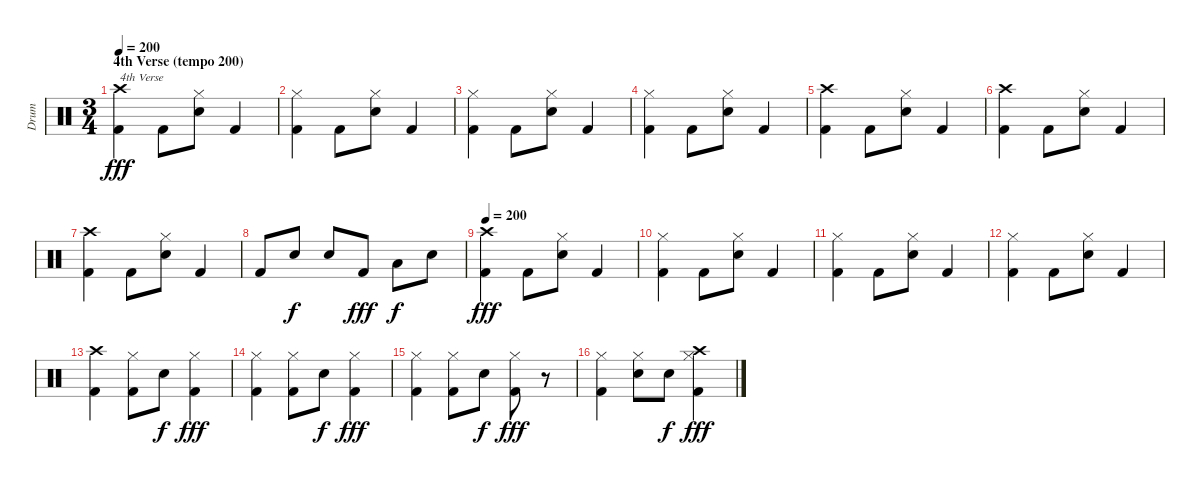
\track ("Drum" "Drum") {instrument percussion}
\staff {score}
\articulation defaults
\ts (3 4)
\section ("" "4th Verse (tempo 200)")
\tempo 200
\clef neutral
\ks c
("Crash high (hit)" "Kick (hit) 2").4{txt "4th Verse" dy fff} "Kick (hit) 2".8 ("Hi-Hat (closed)" "Snare (hit) 2").8 "Kick (hit) 2".4 |
("Hi-Hat (closed)" "Kick (hit) 2").4 "Kick (hit) 2".8 ("Hi-Hat (closed)" "Snare (hit) 2").8 "Kick (hit) 2".4 |
("Hi-Hat (closed)" "Kick (hit) 2").4 "Kick (hit) 2".8 ("Hi-Hat (closed)" "Snare (hit) 2").8 "Kick (hit) 2".4 |
("Hi-Hat (closed)" "Kick (hit) 2").4 "Kick (hit) 2".8 ("Hi-Hat (closed)" "Snare (hit) 2").8 "Kick (hit) 2".4 |
("Crash high (hit)" "Kick (hit) 2").4 "Kick (hit) 2".8 ("Hi-Hat (closed)" "Snare (hit) 2").8 "Kick (hit) 2".4 |
("Crash high (hit)" "Kick (hit) 2").4 "Kick (hit) 2".8 ("Hi-Hat (closed)" "Snare (hit) 2").8 "Kick (hit) 2".4 |
("Crash high (hit)" "Kick (hit) 2").4 "Kick (hit) 2".8 ("Hi-Hat (closed)" "Snare (hit) 2").8 "Kick (hit) 2".4 |
"Kick (hit) 2".8 "Snare (hit) 2".8{dy f} "Snare (hit) 2".8 "Kick (hit) 2".8{dy fff} "Low Tom (hit)".8{dy f} "Snare (hit) 2".8 |
\tempo 200
("Crash high (hit)" "Kick (hit) 2").4{dy fff} "Kick (hit) 2".8 ("Hi-Hat (closed)" "Snare (hit) 2").8 "Kick (hit) 2".4 |
("Hi-Hat (closed)" "Kick (hit) 2").4 "Kick (hit) 2".8 ("Hi-Hat (closed)" "Snare (hit) 2").8 "Kick (hit) 2".4 |
("Hi-Hat (closed)" "Kick (hit) 2").4 "Kick (hit) 2".8 ("Hi-Hat (closed)" "Snare (hit) 2").8 "Kick (hit) 2".4 |
("Hi-Hat (closed)" "Kick (hit) 2").4 "Kick (hit) 2".8 ("Hi-Hat (closed)" "Snare (hit) 2").8 "Kick (hit) 2".4 |
("Crash high (hit)" "Kick (hit) 2").4 ("Hi-Hat (closed)" "Kick (hit) 2").8 "Snare (hit) 2".8{dy f} ("Hi-Hat (closed)" "Kick (hit) 2").4{dy fff} |
("Hi-Hat (closed)" "Kick (hit) 2").4 ("Hi-Hat (closed)" "Kick (hit) 2").8 "Snare (hit) 2".8{dy f} ("Hi-Hat (closed)" "Kick (hit) 2").4{dy fff} |
("Hi-Hat (closed)" "Kick (hit) 2").4 ("Hi-Hat (closed)" "Kick (hit) 2").8 "Snare (hit) 2".8{dy f} ("Hi-Hat (closed)" "Kick (hit) 2").8{dy fff} r.8 |
("Hi-Hat (closed)" "Kick (hit) 2").4 ("Hi-Hat (closed)" "Snare (hit) 2").8 "Snare (hit) 2".8{dy f} ("Hi-Hat (closed)" "Crash high (hit)" "Kick (hit) 2").4{dy fff}
